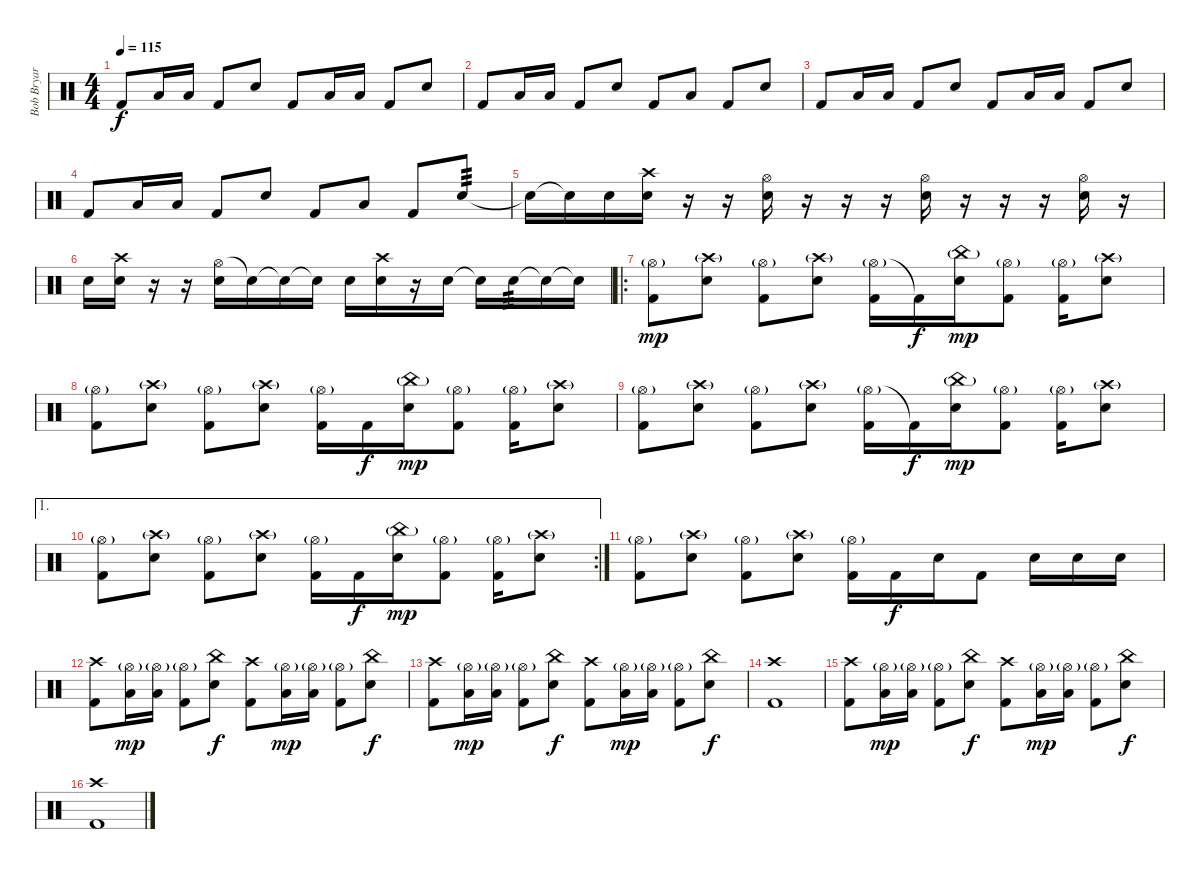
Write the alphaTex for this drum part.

\track ("Bob Bryar [Drums]" "Bob Bryar ") {instrument percussion}
\staff {score}
\articulation defaults
\ts (4 4)
\tempo 115
\clef neutral
\ks c "Kick (hit) 2".8{dy f} "Low Tom (hit)".16 "Low Tom (hit)".16 "Kick (hit) 2".8 "Electric Snare (hit)".8 "Kick (hit) 2".8 "Low Tom (hit)".16 "Low Tom (hit)".16 "Kick (hit) 2".8 "Electric Snare (hit)".8
|
"Kick (hit) 2".8 "Low Tom (hit)".16 "Low Tom (hit)".16 "Kick (hit) 2".8 "Electric Snare (hit)".8 "Kick (hit) 2".8 "Low Tom (hit)".8 "Kick (hit) 2".8 "Electric Snare (hit)".8 |
"Kick (hit) 2".8 "Low Tom (hit)".16 "Low Tom (hit)".16 "Kick (hit) 2".8 "Electric Snare (hit)".8 "Kick (hit) 2".8 "Low Tom (hit)".16 "Low Tom (hit)".16 "Kick (hit) 2".8 "Electric Snare (hit)".8 |
"Kick (hit) 2".8 "Low Tom (hit)".16 "Low Tom (hit)".16 "Kick (hit) 2".8 "Electric Snare (hit)".8 "Kick (hit) 2".8 "Low Tom (hit)".8 "Kick (hit) 2".8 "Electric Snare (hit)".8{tp 3} |
"Electric Snare (hit)"{t}.16 "Snare (hit)"{t}.16 "Electric Snare (hit)".16 ("Crash high (hit)" "Electric Snare (hit)").16 r.16 r.16 ("Hi-Hat (open)" "Electric Snare (hit)").16 r.16 r.16 r.16 ("Hi-Hat (open)" "Electric Snare (hit)").16 r.16 r.16 r.16 ("Hi-Hat (open)" "Electric Snare (hit)").16 r.16 |
"Electric Snare (hit)".16 ("Crash high (hit)" "Electric Snare (hit)").16 r.16 r.16 ("Hi-Hat (open)" "Electric Snare (hit)").16 "Snare (hit)"{t}.16 "Snare (hit)"{t}.16 "Snare (hit)"{t}.16 "Electric Snare (hit)".16 ("Crash high (hit)" "Electric Snare (hit)").16 r.16 "Electric Snare (hit)".16 "Electric Snare (hit)"{t}.16 "Electric Snare (hit)".16{tp 3} "Snare (hit)"{t}.16 "Snare (hit)"{t}.16 |
\ro
("Hi-Hat (open)"{g} "Kick (hit) 2").8{dy mp} ("Crash high (hit)"{g} "Electric Snare (hit)").8 ("Hi-Hat (open)"{g} "Kick (hit) 2").8 ("Crash high (hit)"{g} "Electric Snare (hit)").8 ("Hi-Hat (open)"{g} "Kick (hit) 2").16 "Kick (hit) 2"{t}.16{dy f} ("China (hit)"{g} "Electric Snare (hit)").16{dy mp} ("Hi-Hat (open)"{g} "Kick (hit) 2").8 ("Hi-Hat (open)"{g} "Kick (hit) 2").16 ("Crash high (hit)"{g} "Electric Snare (hit)").8 |
("Hi-Hat (open)"{g} "Kick (hit) 2").8 ("Crash high (hit)"{g} "Electric Snare (hit)").8 ("Hi-Hat (open)"{g} "Kick (hit) 2").8 ("Crash high (hit)"{g} "Electric Snare (hit)").8 ("Hi-Hat (open)"{g} "Kick (hit) 2").16 "Kick (hit) 2".16{dy f} ("China (hit)"{g} "Electric Snare (hit)").16{dy mp} ("Hi-Hat (open)"{g} "Kick (hit) 2").8 ("Hi-Hat (open)"{g} "Kick (hit) 2").16 ("Crash high (hit)"{g} "Electric Snare (hit)").8 |
("Hi-Hat (open)"{g} "Kick (hit) 2").8 ("Crash high (hit)"{g} "Electric Snare (hit)").8 ("Hi-Hat (open)"{g} "Kick (hit) 2").8 ("Crash high (hit)"{g} "Electric Snare (hit)").8 ("Hi-Hat (open)"{g} "Kick (hit) 2").16 "Kick (hit) 2"{t}.16{dy f} ("China (hit)"{g} "Electric Snare (hit)").16{dy mp} ("Hi-Hat (open)"{g} "Kick (hit) 2").8 ("Hi-Hat (open)"{g} "Kick (hit) 2").16 ("Crash high (hit)"{g} "Electric Snare (hit)").8 |
\ae 1
\rc 2
("Hi-Hat (open)"{g} "Kick (hit) 2").8 ("Crash high (hit)"{g} "Electric Snare (hit)").8 ("Hi-Hat (open)"{g} "Kick (hit) 2").8 ("Crash high (hit)"{g} "Electric Snare (hit)").8 ("Hi-Hat (open)"{g} "Kick (hit) 2").16 "Kick (hit) 2".16{dy f} ("China (hit)"{g} "Electric Snare (hit)").16{dy mp} ("Hi-Hat (open)"{g} "Kick (hit) 2").8 ("Hi-Hat (open)"{g} "Kick (hit) 2").16 ("Crash high (hit)"{g} "Electric Snare (hit)").8 |
("Hi-Hat (open)"{g} "Kick (hit) 2").8 ("Crash high (hit)"{g} "Electric Snare (hit)").8 ("Hi-Hat (open)"{g} "Kick (hit) 2").8 ("Crash high (hit)"{g} "Electric Snare (hit)").8 ("Hi-Hat (open)"{g} "Kick (hit) 2").16 "Kick (hit) 2".16{dy f} "Electric Snare (hit)".16 "Kick (hit) 2".8 "Electric Snare (hit)".16 "Electric Snare (hit)".16 "Electric Snare (hit)".16 |
("Crash high (hit)" "Kick (hit) 2").8 ("Hi-Hat (open)"{g} "Low Tom (hit)").16{dy mp} ("Hi-Hat (open)"{g} "Low Tom (hit)").16 ("Hi-Hat (open)"{g} "Kick (hit) 2").8 ("China (hit)" "Electric Snare (hit)").8{dy f} ("Crash high (hit)" "Kick (hit) 2").8 ("Hi-Hat (open)"{g} "Low Tom (hit)").16{dy mp} ("Hi-Hat (open)"{g} "Low Tom (hit)").16 ("Hi-Hat (open)"{g} "Kick (hit) 2").8 ("China (hit)" "Electric Snare (hit)").8{dy f} |
("Crash high (hit)" "Kick (hit) 2").8 ("Hi-Hat (open)"{g} "Low Tom (hit)").16{dy mp} ("Hi-Hat (open)"{g} "Low Tom (hit)").16 ("Hi-Hat (open)"{g} "Kick (hit) 2").8 ("China (hit)" "Electric Snare (hit)").8{dy f} ("Crash high (hit)" "Kick (hit) 2").8 ("Hi-Hat (open)"{g} "Low Tom (hit)").16{dy mp} ("Hi-Hat (open)"{g} "Low Tom (hit)").16 ("Hi-Hat (open)"{g} "Kick (hit) 2").8 ("China (hit)" "Electric Snare (hit)").8{dy f} |
("Crash high (hit)" "Kick (hit) 2").1 |
("Crash high (hit)" "Kick (hit) 2").8 ("Hi-Hat (open)"{g} "Low Tom (hit)").16{dy mp} ("Hi-Hat (open)"{g} "Low Tom (hit)").16 ("Hi-Hat (open)"{g} "Kick (hit) 2").8 ("China (hit)" "Electric Snare (hit)").8{dy f} ("Crash high (hit)" "Kick (hit) 2").8 ("Hi-Hat (open)"{g} "Low Tom (hit)").16{dy mp} ("Hi-Hat (open)"{g} "Low Tom (hit)").16 ("Hi-Hat (open)"{g} "Kick (hit) 2").8 ("China (hit)" "Electric Snare (hit)").8{dy f} |
("Crash high (hit)" "Kick (hit) 2").1
